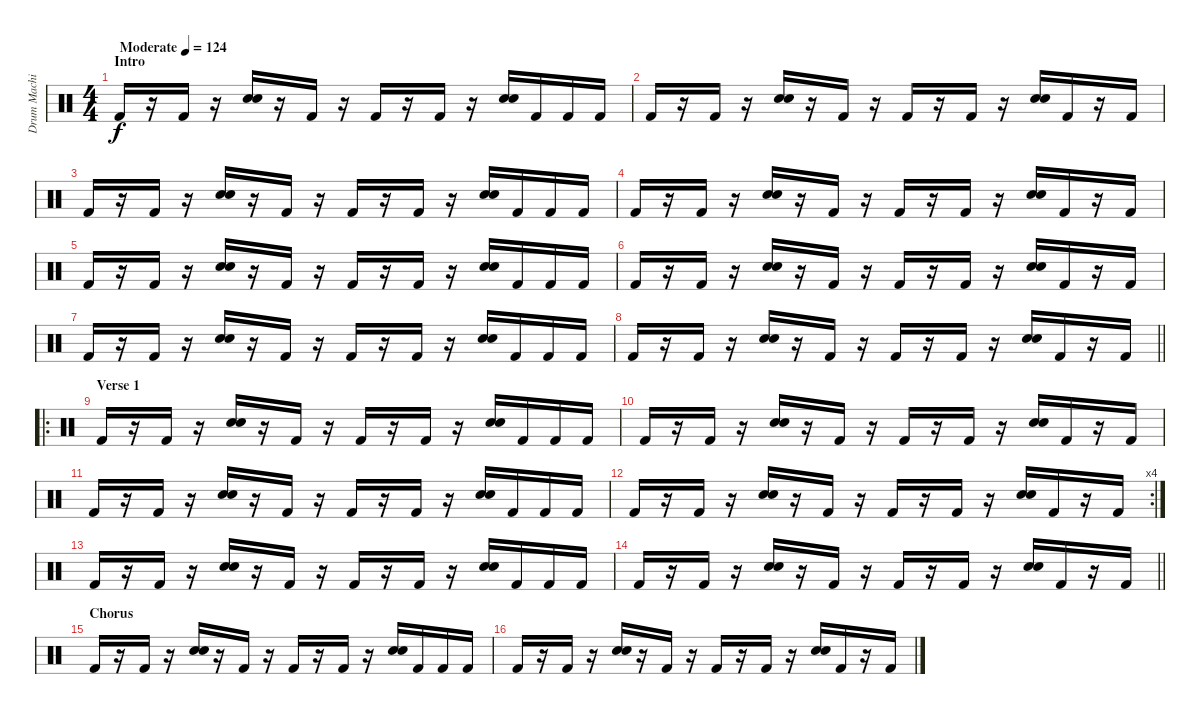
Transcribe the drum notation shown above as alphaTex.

\track ("Drum Machine" "Drum Machi") {instrument percussion}
\staff {score}
\articulation defaults
\ts (4 4)
\section ("" "Intro")
\tempo (124 "Moderate")
\clef neutral
\ks c "Kick (hit) 2".16{dy f}
r.16 "Kick (hit) 2".16 r.16 ("Electric Snare (hit)" "Hand Clap (hit)").16 r.16 "Kick (hit) 2".16 r.16 "Kick (hit) 2".16 r.16 "Kick (hit) 2".16 r.16 ("Electric Snare (hit)" "Hand Clap (hit)").16 "Kick (hit) 2".16 "Kick (hit) 2".16 "Kick (hit) 2".16 |
"Kick (hit) 2".16 r.16 "Kick (hit) 2".16 r.16 ("Electric Snare (hit)" "Hand Clap (hit)").16 r.16 "Kick (hit) 2".16 r.16 "Kick (hit) 2".16 r.16 "Kick (hit) 2".16 r.16 ("Electric Snare (hit)" "Hand Clap (hit)").16 "Kick (hit) 2".16 r.16 "Kick (hit) 2".16 |
"Kick (hit) 2".16 r.16 "Kick (hit) 2".16 r.16 ("Electric Snare (hit)" "Hand Clap (hit)").16 r.16 "Kick (hit) 2".16 r.16 "Kick (hit) 2".16 r.16 "Kick (hit) 2".16 r.16 ("Electric Snare (hit)" "Hand Clap (hit)").16 "Kick (hit) 2".16 "Kick (hit) 2".16 "Kick (hit) 2".16 |
"Kick (hit) 2".16 r.16 "Kick (hit) 2".16 r.16 ("Electric Snare (hit)" "Hand Clap (hit)").16 r.16 "Kick (hit) 2".16 r.16 "Kick (hit) 2".16 r.16 "Kick (hit) 2".16 r.16 ("Electric Snare (hit)" "Hand Clap (hit)").16 "Kick (hit) 2".16 r.16 "Kick (hit) 2".16 |
"Kick (hit) 2".16 r.16 "Kick (hit) 2".16 r.16 ("Electric Snare (hit)" "Hand Clap (hit)").16 r.16 "Kick (hit) 2".16 r.16 "Kick (hit) 2".16 r.16 "Kick (hit) 2".16 r.16 ("Electric Snare (hit)" "Hand Clap (hit)").16 "Kick (hit) 2".16 "Kick (hit) 2".16 "Kick (hit) 2".16 |
"Kick (hit) 2".16 r.16 "Kick (hit) 2".16 r.16 ("Electric Snare (hit)" "Hand Clap (hit)").16 r.16 "Kick (hit) 2".16 r.16 "Kick (hit) 2".16 r.16 "Kick (hit) 2".16 r.16 ("Electric Snare (hit)" "Hand Clap (hit)").16 "Kick (hit) 2".16 r.16 "Kick (hit) 2".16 |
"Kick (hit) 2".16 r.16 "Kick (hit) 2".16 r.16 ("Electric Snare (hit)" "Hand Clap (hit)").16 r.16 "Kick (hit) 2".16 r.16 "Kick (hit) 2".16 r.16 "Kick (hit) 2".16 r.16 ("Electric Snare (hit)" "Hand Clap (hit)").16 "Kick (hit) 2".16 "Kick (hit) 2".16 "Kick (hit) 2".16 |
\barLineRight lightlight "Kick (hit) 2".16
r.16 "Kick (hit) 2".16 r.16 ("Electric Snare (hit)" "Hand Clap (hit)").16 r.16 "Kick (hit) 2".16 r.16 "Kick (hit) 2".16 r.16 "Kick (hit) 2".16 r.16 ("Electric Snare (hit)" "Hand Clap (hit)").16 "Kick (hit) 2".16 r.16 "Kick (hit) 2".16 |
\ro
\section ("" "Verse 1")
"Kick (hit) 2".16 r.16 "Kick (hit) 2".16 r.16 ("Electric Snare (hit)" "Hand Clap (hit)").16 r.16 "Kick (hit) 2".16 r.16 "Kick (hit) 2".16 r.16 "Kick (hit) 2".16 r.16 ("Electric Snare (hit)" "Hand Clap (hit)").16 "Kick (hit) 2".16 "Kick (hit) 2".16 "Kick (hit) 2".16 |
"Kick (hit) 2".16 r.16 "Kick (hit) 2".16 r.16 ("Electric Snare (hit)" "Hand Clap (hit)").16 r.16 "Kick (hit) 2".16 r.16 "Kick (hit) 2".16 r.16 "Kick (hit) 2".16 r.16 ("Electric Snare (hit)" "Hand Clap (hit)").16 "Kick (hit) 2".16 r.16 "Kick (hit) 2".16 |
"Kick (hit) 2".16 r.16 "Kick (hit) 2".16 r.16 ("Electric Snare (hit)" "Hand Clap (hit)").16 r.16 "Kick (hit) 2".16 r.16 "Kick (hit) 2".16 r.16 "Kick (hit) 2".16 r.16 ("Electric Snare (hit)" "Hand Clap (hit)").16 "Kick (hit) 2".16 "Kick (hit) 2".16 "Kick (hit) 2".16 |
\rc 4 "Kick (hit) 2".16
r.16 "Kick (hit) 2".16 r.16 ("Electric Snare (hit)" "Hand Clap (hit)").16 r.16 "Kick (hit) 2".16 r.16 "Kick (hit) 2".16 r.16 "Kick (hit) 2".16 r.16 ("Electric Snare (hit)" "Hand Clap (hit)").16 "Kick (hit) 2".16 r.16 "Kick (hit) 2".16 |
"Kick (hit) 2".16 r.16 "Kick (hit) 2".16 r.16 ("Electric Snare (hit)" "Hand Clap (hit)").16 r.16 "Kick (hit) 2".16 r.16 "Kick (hit) 2".16 r.16 "Kick (hit) 2".16 r.16 ("Electric Snare (hit)" "Hand Clap (hit)").16 "Kick (hit) 2".16 "Kick (hit) 2".16 "Kick (hit) 2".16 |
\barLineRight lightlight "Kick (hit) 2".16
r.16 "Kick (hit) 2".16 r.16 ("Electric Snare (hit)" "Hand Clap (hit)").16 r.16 "Kick (hit) 2".16 r.16 "Kick (hit) 2".16 r.16 "Kick (hit) 2".16 r.16 ("Electric Snare (hit)" "Hand Clap (hit)").16 "Kick (hit) 2".16 r.16 "Kick (hit) 2".16 |
\section ("" "Chorus")
"Kick (hit) 2".16 r.16 "Kick (hit) 2".16 r.16 ("Electric Snare (hit)" "Hand Clap (hit)").16 r.16 "Kick (hit) 2".16 r.16 "Kick (hit) 2".16 r.16 "Kick (hit) 2".16 r.16 ("Electric Snare (hit)" "Hand Clap (hit)").16 "Kick (hit) 2".16 "Kick (hit) 2".16 "Kick (hit) 2".16 |
"Kick (hit) 2".16 r.16 "Kick (hit) 2".16 r.16 ("Electric Snare (hit)" "Hand Clap (hit)").16 r.16 "Kick (hit) 2".16 r.16 "Kick (hit) 2".16 r.16 "Kick (hit) 2".16 r.16 ("Electric Snare (hit)" "Hand Clap (hit)").16 "Kick (hit) 2".16 r.16 "Kick (hit) 2".16
